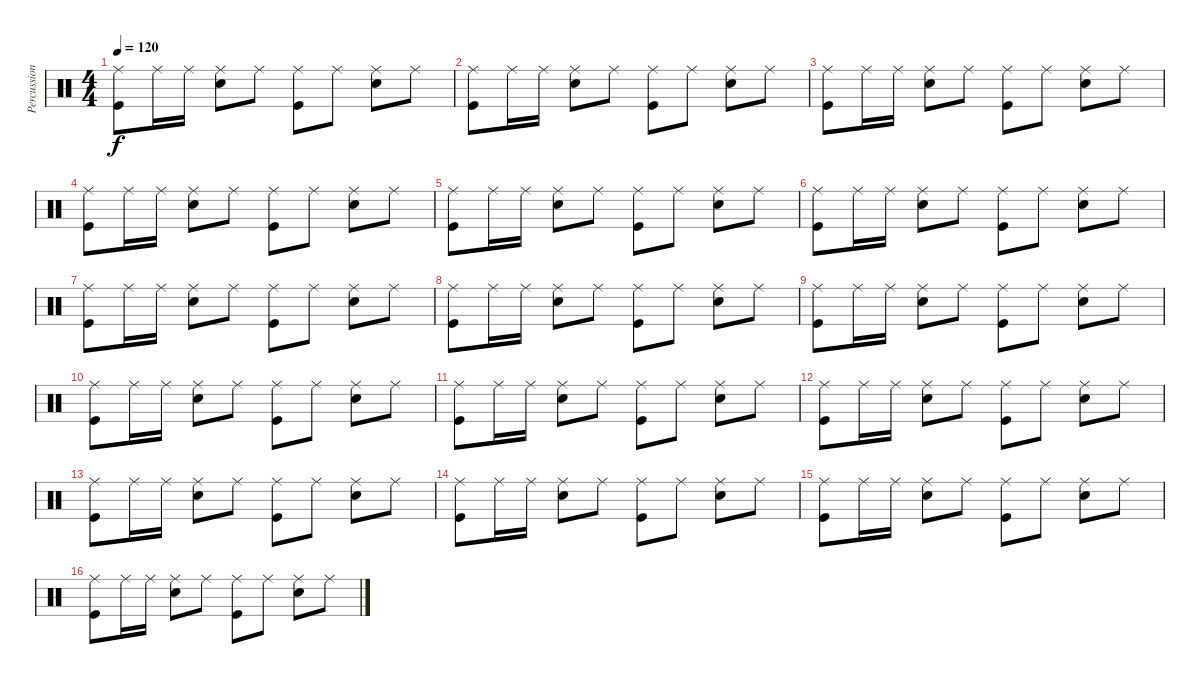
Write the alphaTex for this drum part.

\track ("Percussion" "Percussion") {instrument percussion}
\staff {score}
\articulation defaults
\ts (4 4)
\tempo 120
\clef neutral
\ks c
("Ride (middle)" "Kick (hit)").8{dy f} "Ride (middle)".16 "Ride (middle)".16 ("Ride (middle)" "Snare (hit) 2").8 "Ride (middle)".8 ("Ride (middle)" "Kick (hit)").8 "Ride (middle)".8 ("Ride (middle)" "Snare (hit) 2").8 "Ride (middle)".8 |
("Ride (middle)" "Kick (hit)").8 "Ride (middle)".16 "Ride (middle)".16 ("Ride (middle)" "Snare (hit) 2").8 "Ride (middle)".8 ("Ride (middle)" "Kick (hit)").8 "Ride (middle)".8 ("Ride (middle)" "Snare (hit) 2").8 "Ride (middle)".8 |
("Ride (middle)" "Kick (hit)").8 "Ride (middle)".16 "Ride (middle)".16 ("Ride (middle)" "Snare (hit) 2").8 "Ride (middle)".8 ("Ride (middle)" "Kick (hit)").8 "Ride (middle)".8 ("Ride (middle)" "Snare (hit) 2").8 "Ride (middle)".8 |
("Ride (middle)" "Kick (hit)").8 "Ride (middle)".16 "Ride (middle)".16 ("Ride (middle)" "Snare (hit) 2").8 "Ride (middle)".8 ("Ride (middle)" "Kick (hit)").8 "Ride (middle)".8 ("Ride (middle)" "Snare (hit) 2").8 "Ride (middle)".8 |
("Ride (middle)" "Kick (hit)").8 "Ride (middle)".16 "Ride (middle)".16 ("Ride (middle)" "Snare (hit) 2").8 "Ride (middle)".8 ("Ride (middle)" "Kick (hit)").8 "Ride (middle)".8 ("Ride (middle)" "Snare (hit) 2").8 "Ride (middle)".8 |
("Ride (middle)" "Kick (hit)").8 "Ride (middle)".16 "Ride (middle)".16 ("Ride (middle)" "Snare (hit) 2").8 "Ride (middle)".8 ("Ride (middle)" "Kick (hit)").8 "Ride (middle)".8 ("Ride (middle)" "Snare (hit) 2").8 "Ride (middle)".8 |
("Ride (middle)" "Kick (hit)").8 "Ride (middle)".16 "Ride (middle)".16 ("Ride (middle)" "Snare (hit) 2").8 "Ride (middle)".8 ("Ride (middle)" "Kick (hit)").8 "Ride (middle)".8 ("Ride (middle)" "Snare (hit) 2").8 "Ride (middle)".8 |
("Ride (middle)" "Kick (hit)").8 "Ride (middle)".16 "Ride (middle)".16 ("Ride (middle)" "Snare (hit) 2").8 "Ride (middle)".8 ("Ride (middle)" "Kick (hit)").8 "Ride (middle)".8 ("Ride (middle)" "Snare (hit) 2").8 "Ride (middle)".8 |
("Ride (middle)" "Kick (hit)").8 "Ride (middle)".16 "Ride (middle)".16 ("Ride (middle)" "Snare (hit) 2").8 "Ride (middle)".8 ("Ride (middle)" "Kick (hit)").8 "Ride (middle)".8 ("Ride (middle)" "Snare (hit) 2").8 "Ride (middle)".8 |
("Ride (middle)" "Kick (hit)").8 "Ride (middle)".16 "Ride (middle)".16 ("Ride (middle)" "Snare (hit) 2").8 "Ride (middle)".8 ("Ride (middle)" "Kick (hit)").8 "Ride (middle)".8 ("Ride (middle)" "Snare (hit) 2").8 "Ride (middle)".8 |
("Ride (middle)" "Kick (hit)").8 "Ride (middle)".16 "Ride (middle)".16 ("Ride (middle)" "Snare (hit) 2").8 "Ride (middle)".8 ("Ride (middle)" "Kick (hit)").8 "Ride (middle)".8 ("Ride (middle)" "Snare (hit) 2").8 "Ride (middle)".8 |
("Ride (middle)" "Kick (hit)").8 "Ride (middle)".16 "Ride (middle)".16 ("Ride (middle)" "Snare (hit) 2").8 "Ride (middle)".8 ("Ride (middle)" "Kick (hit)").8 "Ride (middle)".8 ("Ride (middle)" "Snare (hit) 2").8 "Ride (middle)".8 |
("Ride (middle)" "Kick (hit)").8 "Ride (middle)".16 "Ride (middle)".16 ("Ride (middle)" "Snare (hit) 2").8 "Ride (middle)".8 ("Ride (middle)" "Kick (hit)").8 "Ride (middle)".8 ("Ride (middle)" "Snare (hit) 2").8 "Ride (middle)".8 |
("Ride (middle)" "Kick (hit)").8 "Ride (middle)".16 "Ride (middle)".16 ("Ride (middle)" "Snare (hit) 2").8 "Ride (middle)".8 ("Ride (middle)" "Kick (hit)").8 "Ride (middle)".8 ("Ride (middle)" "Snare (hit) 2").8 "Ride (middle)".8 |
("Ride (middle)" "Kick (hit)").8 "Ride (middle)".16 "Ride (middle)".16 ("Ride (middle)" "Snare (hit) 2").8 "Ride (middle)".8 ("Ride (middle)" "Kick (hit)").8 "Ride (middle)".8 ("Ride (middle)" "Snare (hit) 2").8 "Ride (middle)".8 |
("Ride (middle)" "Kick (hit)").8 "Ride (middle)".16 "Ride (middle)".16 ("Ride (middle)" "Snare (hit) 2").8 "Ride (middle)".8 ("Ride (middle)" "Kick (hit)").8 "Ride (middle)".8 ("Ride (middle)" "Snare (hit) 2").8 "Ride (middle)".8
